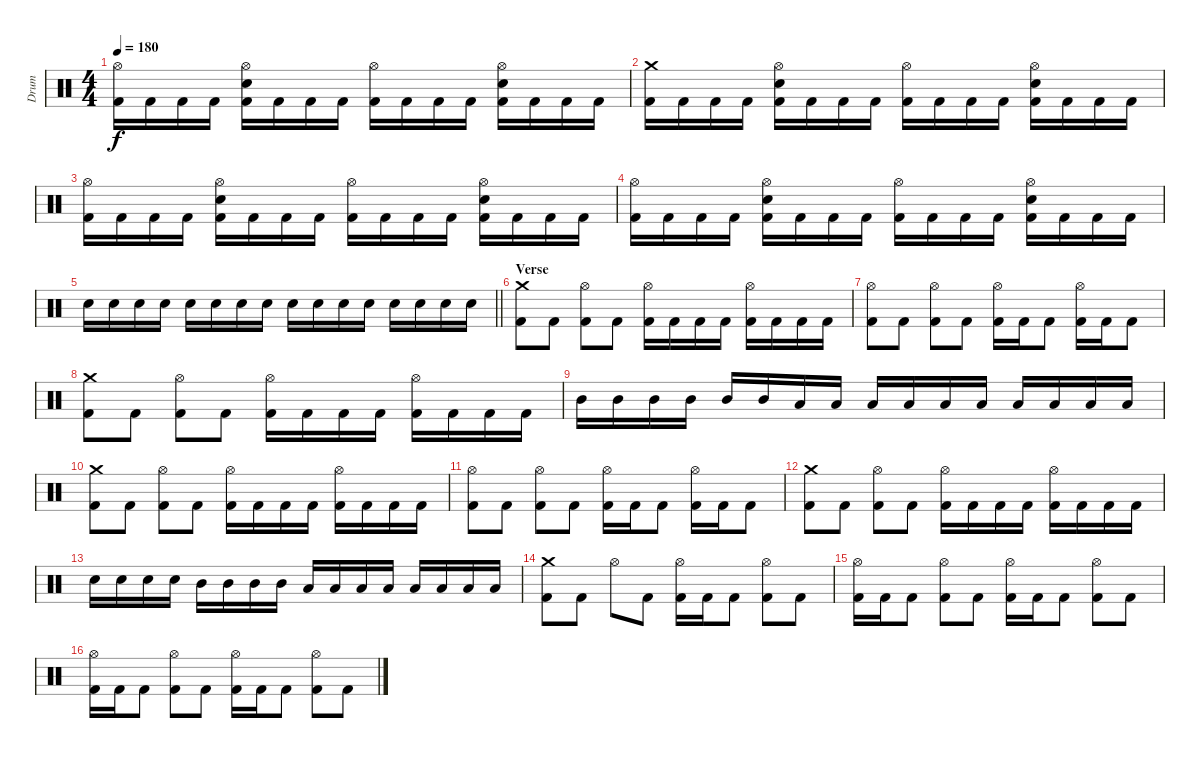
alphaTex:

\track ("Drum" "Drum") {instrument percussion}
\staff
\articulation defaults
\ts (4 4)
\tempo 180
\clef neutral
\ks c
("Hi-Hat (open)" "Kick (hit) 2").16{dy f} "Kick (hit) 2".16 "Kick (hit) 2".16 "Kick (hit) 2".16 ("Hi-Hat (open)" "Electric Snare (hit)" "Kick (hit) 2").16 "Kick (hit) 2".16 "Kick (hit) 2".16 "Kick (hit) 2".16 ("Hi-Hat (open)" "Kick (hit) 2").16 "Kick (hit) 2".16 "Kick (hit) 2".16 "Kick (hit) 2".16 ("Hi-Hat (open)" "Electric Snare (hit)" "Kick (hit) 2").16 "Kick (hit) 2".16 "Kick (hit) 2".16 "Kick (hit) 2".16 |
("Crash medium (hit)" "Kick (hit) 2").16 "Kick (hit) 2".16 "Kick (hit) 2".16 "Kick (hit) 2".16 ("Hi-Hat (open)" "Electric Snare (hit)" "Kick (hit) 2").16 "Kick (hit) 2".16 "Kick (hit) 2".16 "Kick (hit) 2".16 ("Hi-Hat (open)" "Kick (hit) 2").16 "Kick (hit) 2".16 "Kick (hit) 2".16 "Kick (hit) 2".16 ("Hi-Hat (open)" "Electric Snare (hit)" "Kick (hit) 2").16 "Kick (hit) 2".16 "Kick (hit) 2".16 "Kick (hit) 2".16 |
("Hi-Hat (open)" "Kick (hit) 2").16 "Kick (hit) 2".16 "Kick (hit) 2".16 "Kick (hit) 2".16 ("Hi-Hat (open)" "Electric Snare (hit)" "Kick (hit) 2").16 "Kick (hit) 2".16 "Kick (hit) 2".16 "Kick (hit) 2".16 ("Hi-Hat (open)" "Kick (hit) 2").16 "Kick (hit) 2".16 "Kick (hit) 2".16 "Kick (hit) 2".16 ("Hi-Hat (open)" "Electric Snare (hit)" "Kick (hit) 2").16 "Kick (hit) 2".16 "Kick (hit) 2".16 "Kick (hit) 2".16 |
("Hi-Hat (open)" "Kick (hit) 2").16 "Kick (hit) 2".16 "Kick (hit) 2".16 "Kick (hit) 2".16 ("Hi-Hat (open)" "Electric Snare (hit)" "Kick (hit) 2").16 "Kick (hit) 2".16 "Kick (hit) 2".16 "Kick (hit) 2".16 ("Hi-Hat (open)" "Kick (hit) 2").16 "Kick (hit) 2".16 "Kick (hit) 2".16 "Kick (hit) 2".16 ("Hi-Hat (open)" "Electric Snare (hit)" "Kick (hit) 2").16 "Kick (hit) 2".16 "Kick (hit) 2".16 "Kick (hit) 2".16 |
\barLineRight lightlight "Electric Snare (hit)".16 "Electric Snare (hit)".16 "Electric Snare (hit)".16 "Electric Snare (hit)".16 "Electric Snare (hit)".16 "Electric Snare (hit)".16 "Electric Snare (hit)".16 "Electric Snare (hit)".16 "Electric Snare (hit)".16 "Electric Snare (hit)".16 "Electric Snare (hit)".16 "Electric Snare (hit)".16 "Electric Snare (hit)".16 "Electric Snare (hit)".16 "Electric Snare (hit)".16 "Electric Snare (hit)".16
|
\section ("" "Verse")
("Crash medium (hit)" "Kick (hit) 2").8 "Kick (hit) 2".8 ("Hi-Hat (open)" "Kick (hit) 2").8 "Kick (hit) 2".8 ("Hi-Hat (open)" "Kick (hit) 2").16 "Kick (hit) 2".16 "Kick (hit) 2".16 "Kick (hit) 2".16 ("Hi-Hat (open)" "Kick (hit) 2").16 "Kick (hit) 2".16 "Kick (hit) 2".16 "Kick (hit) 2".16 |
("Hi-Hat (open)" "Kick (hit) 2").8 "Kick (hit) 2".8 ("Hi-Hat (open)" "Kick (hit) 2").8 "Kick (hit) 2".8 ("Hi-Hat (open)" "Kick (hit) 2").16 "Kick (hit) 2".16 "Kick (hit) 2".8 ("Hi-Hat (open)" "Kick (hit) 2").16 "Kick (hit) 2".16 "Kick (hit) 2".8 |
("Crash medium (hit)" "Kick (hit) 2").8 "Kick (hit) 2".8 ("Hi-Hat (open)" "Kick (hit) 2").8 "Kick (hit) 2".8 ("Hi-Hat (open)" "Kick (hit) 2").16 "Kick (hit) 2".16 "Kick (hit) 2".16 "Kick (hit) 2".16 ("Hi-Hat (open)" "Kick (hit) 2").16 "Kick (hit) 2".16 "Kick (hit) 2".16 "Kick (hit) 2".16 |
"Mid Tom (hit)".16 "Mid Tom (hit)".16 "Mid Tom (hit)".16 "Mid Tom (hit)".16 "Mid Tom (hit)".16 "Mid Tom (hit)".16 "Low Tom (hit)".16 "Low Tom (hit)".16 "Low Tom (hit)".16 "Low Tom (hit)".16 "Low Tom (hit)".16 "Low Tom (hit)".16 "Low Floor Tom (hit)".16 "Low Floor Tom (hit)".16 "Low Floor Tom (hit)".16 "Low Floor Tom (hit)".16 |
("Crash medium (hit)" "Kick (hit) 2").8 "Kick (hit) 2".8 ("Hi-Hat (open)" "Kick (hit) 2").8 "Kick (hit) 2".8 ("Hi-Hat (open)" "Kick (hit) 2").16 "Kick (hit) 2".16 "Kick (hit) 2".16 "Kick (hit) 2".16 ("Hi-Hat (open)" "Kick (hit) 2").16 "Kick (hit) 2".16 "Kick (hit) 2".16 "Kick (hit) 2".16 |
("Hi-Hat (open)" "Kick (hit) 2").8 "Kick (hit) 2".8 ("Hi-Hat (open)" "Kick (hit) 2").8 "Kick (hit) 2".8 ("Hi-Hat (open)" "Kick (hit) 2").16 "Kick (hit) 2".16 "Kick (hit) 2".8 ("Hi-Hat (open)" "Kick (hit) 2").16 "Kick (hit) 2".16 "Kick (hit) 2".8 |
("Crash medium (hit)" "Kick (hit) 2").8 "Kick (hit) 2".8 ("Hi-Hat (open)" "Kick (hit) 2").8 "Kick (hit) 2".8 ("Hi-Hat (open)" "Kick (hit) 2").16 "Kick (hit) 2".16 "Kick (hit) 2".16 "Kick (hit) 2".16 ("Hi-Hat (open)" "Kick (hit) 2").16 "Kick (hit) 2".16 "Kick (hit) 2".16 "Kick (hit) 2".16 |
"Electric Snare (hit)".16 "Electric Snare (hit)".16 "Electric Snare (hit)".16 "Electric Snare (hit)".16 "Mid Tom (hit)".16 "Mid Tom (hit)".16 "Mid Tom (hit)".16 "Mid Tom (hit)".16 "Low Tom (hit)".16 "Low Tom (hit)".16 "Low Tom (hit)".16 "Low Tom (hit)".16 "Low Floor Tom (hit)".16 "Low Floor Tom (hit)".16 "Low Floor Tom (hit)".16 "Low Floor Tom (hit)".16 |
("Crash medium (hit)" "Kick (hit) 2").8 "Kick (hit) 2".8 "Hi-Hat (open)".8 "Kick (hit) 2".8 ("Hi-Hat (open)" "Kick (hit) 2").16 "Kick (hit) 2".16 "Kick (hit) 2".8 ("Hi-Hat (open)" "Kick (hit) 2").8 "Kick (hit) 2".8 |
("Hi-Hat (open)" "Kick (hit) 2").16 "Kick (hit) 2".16 "Kick (hit) 2".8 ("Hi-Hat (open)" "Kick (hit) 2").8 "Kick (hit) 2".8 ("Hi-Hat (open)" "Kick (hit) 2").16 "Kick (hit) 2".16 "Kick (hit) 2".8 ("Hi-Hat (open)" "Kick (hit) 2").8 "Kick (hit) 2".8 |
("Hi-Hat (open)" "Kick (hit) 2").16 "Kick (hit) 2".16 "Kick (hit) 2".8 ("Hi-Hat (open)" "Kick (hit) 2").8 "Kick (hit) 2".8 ("Hi-Hat (open)" "Kick (hit) 2").16 "Kick (hit) 2".16 "Kick (hit) 2".8 ("Hi-Hat (open)" "Kick (hit) 2").8 "Kick (hit) 2".8
